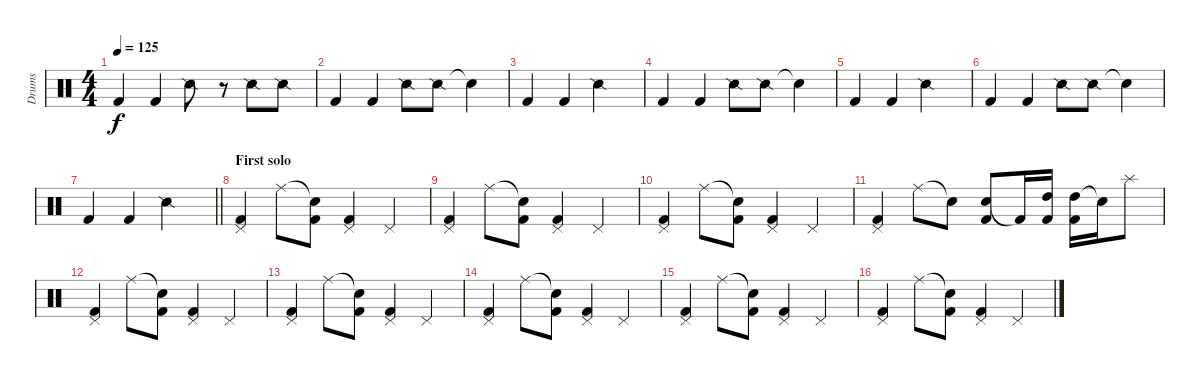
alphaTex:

\track ("Drums" "Drums") {instrument percussion}
\staff {score}
\articulation defaults
\ts (4 4)
\tempo 125
\clef neutral
\ks c "Kick (hit) 2".4{dy f} "Kick (hit) 2".4 "Snare (side stick) 2".8
r.8 "Snare (side stick) 2".8 "Snare (side stick) 2".8 |
"Kick (hit) 2".4 "Kick (hit) 2".4 "Snare (side stick) 2".8 "Snare (side stick) 2".8 "Snare (hit)"{t}.4 |
"Kick (hit) 2".4 "Kick (hit) 2".4 "Snare (side stick) 2".2 |
"Kick (hit) 2".4 "Kick (hit) 2".4 "Snare (side stick) 2".8 "Snare (side stick) 2".8 "Snare (hit)"{t}.4 |
"Kick (hit) 2".4 "Kick (hit) 2".4 "Snare (side stick) 2".2 |
"Kick (hit) 2".4 "Kick (hit) 2".4 "Snare (side stick) 2".8 "Snare (side stick) 2".8 "Snare (hit)"{t}.4 |
\barLineRight lightlight "Kick (hit) 2".4 "Kick (hit) 2".4 "Snare (side stick) 2".2
|
\section ("" "First solo")
("Pedal Hi-Hat (hit)" "Kick (hit) 2").4{volume 16} "Ride (middle)".8 ("Snare (hit)"{t} "Kick (hit) 2").8 ("Pedal Hi-Hat (hit)" "Kick (hit) 2").4 "Pedal Hi-Hat (hit)".4 |
("Pedal Hi-Hat (hit)" "Kick (hit) 2").4 "Ride (middle)".8 ("Snare (hit)"{t} "Kick (hit) 2").8 ("Pedal Hi-Hat (hit)" "Kick (hit) 2").4 "Pedal Hi-Hat (hit)".4 |
("Pedal Hi-Hat (hit)" "Kick (hit) 2").4 "Ride (middle)".8 ("Snare (hit)"{t} "Kick (hit) 2").8 ("Pedal Hi-Hat (hit)" "Kick (hit) 2").4 "Pedal Hi-Hat (hit)".4 |
("Pedal Hi-Hat (hit)" "Kick (hit) 2").4 "Ride (middle)".8 "Snare (hit)"{t}.8 ("Snare (hit) 2" "Kick (hit) 2").8 "Kick (hit) 2"{t}.16 ("High Tom (hit)" "Kick (hit) 2").16 ("High Tom (hit)" "Kick (hit) 2").16 "Snare (hit)"{t}.16 "Splash (hit)".8 |
("Pedal Hi-Hat (hit)" "Kick (hit) 2").4 "Ride (middle)".8 ("Snare (hit)"{t} "Kick (hit) 2").8 ("Pedal Hi-Hat (hit)" "Kick (hit) 2").4 "Pedal Hi-Hat (hit)".4 |
("Pedal Hi-Hat (hit)" "Kick (hit) 2").4 "Ride (middle)".8 ("Snare (hit)"{t} "Kick (hit) 2").8 ("Pedal Hi-Hat (hit)" "Kick (hit) 2").4 "Pedal Hi-Hat (hit)".4 |
("Pedal Hi-Hat (hit)" "Kick (hit) 2").4 "Ride (middle)".8 ("Snare (hit)"{t} "Kick (hit) 2").8 ("Pedal Hi-Hat (hit)" "Kick (hit) 2").4 "Pedal Hi-Hat (hit)".4 |
("Pedal Hi-Hat (hit)" "Kick (hit) 2").4 "Ride (middle)".8 ("Snare (hit)"{t} "Kick (hit) 2").8 ("Pedal Hi-Hat (hit)" "Kick (hit) 2").4 "Pedal Hi-Hat (hit)".4 |
("Pedal Hi-Hat (hit)" "Kick (hit) 2").4 "Ride (middle)".8 ("Snare (hit)"{t} "Kick (hit) 2").8 ("Pedal Hi-Hat (hit)" "Kick (hit) 2").4 "Pedal Hi-Hat (hit)".4
